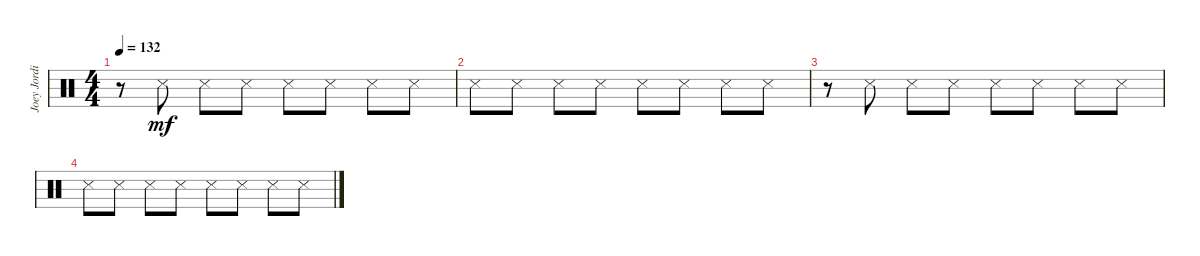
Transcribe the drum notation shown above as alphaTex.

\track ("Joey Jordison (Intro)" "Joey Jordi") {instrument percussion}
\staff {score}
\articulation defaults
\ts (4 4)
\tempo 132
\clef neutral
\ks c
r.8{dy mf} "Snare (side stick) 3".8 "Snare (side stick) 3".8 "Snare (side stick) 3".8 "Snare (side stick) 3".8 "Snare (side stick) 3".8 "Snare (side stick) 3".8 "Snare (side stick) 3".8 |
"Snare (side stick) 3".8 "Snare (side stick) 3".8 "Snare (side stick) 3".8 "Snare (side stick) 3".8 "Snare (side stick) 3".8 "Snare (side stick) 3".8 "Snare (side stick) 3".8 "Snare (side stick) 3".8 |
r.8 "Snare (side stick) 3".8 "Snare (side stick) 3".8 "Snare (side stick) 3".8 "Snare (side stick) 3".8 "Snare (side stick) 3".8 "Snare (side stick) 3".8 "Snare (side stick) 3".8 |
"Snare (side stick) 3".8 "Snare (side stick) 3".8 "Snare (side stick) 3".8 "Snare (side stick) 3".8 "Snare (side stick) 3".8 "Snare (side stick) 3".8 "Snare (side stick) 3".8 "Snare (side stick) 3".8
